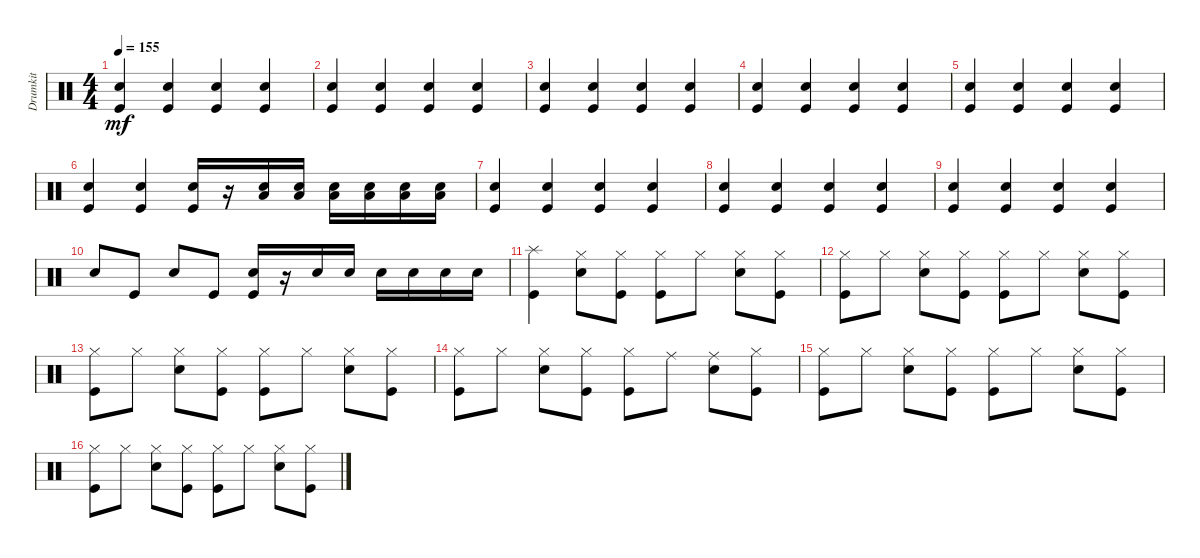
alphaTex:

\track ("Drumkit" "Drumkit") {instrument percussion}
\staff {score}
\articulation defaults
\ts (4 4)
\tempo 155
\clef neutral
\ks c
("Kick (hit)" "Snare (hit) 2").4{dy mf} ("Kick (hit)" "Snare (hit) 2").4 ("Kick (hit)" "Snare (hit) 2").4 ("Kick (hit)" "Snare (hit) 2").4 |
("Kick (hit)" "Snare (hit) 2").4 ("Kick (hit)" "Snare (hit) 2").4 ("Kick (hit)" "Snare (hit) 2").4 ("Kick (hit)" "Snare (hit) 2").4 |
("Kick (hit)" "Snare (hit) 2").4 ("Kick (hit)" "Snare (hit) 2").4 ("Kick (hit)" "Snare (hit) 2").4 ("Kick (hit)" "Snare (hit) 2").4 |
("Kick (hit)" "Snare (hit) 2").4 ("Kick (hit)" "Snare (hit) 2").4 ("Kick (hit)" "Snare (hit) 2").4 ("Kick (hit)" "Snare (hit) 2").4 |
("Kick (hit)" "Snare (hit) 2").4 ("Kick (hit)" "Snare (hit) 2").4 ("Kick (hit)" "Snare (hit) 2").4 ("Kick (hit)" "Snare (hit) 2").4 |
("Kick (hit)" "Snare (hit) 2").4 ("Snare (hit) 2" "Kick (hit)").4 ("Snare (hit) 2" "Kick (hit)").16 r.16 ("Low Floor Tom (hit)" "Snare (hit) 2").16 ("Low Floor Tom (hit)" "Snare (hit) 2").16 ("Low Floor Tom (hit)" "Snare (hit) 2").16 ("Low Floor Tom (hit)" "Snare (hit) 2").16 ("Low Floor Tom (hit)" "Snare (hit) 2").16 ("Low Floor Tom (hit)" "Snare (hit) 2").16 |
("Kick (hit)" "Snare (hit) 2").4 ("Kick (hit)" "Snare (hit) 2").4 ("Kick (hit)" "Snare (hit) 2").4 ("Kick (hit)" "Snare (hit) 2").4 |
("Kick (hit)" "Snare (hit) 2").4 ("Kick (hit)" "Snare (hit) 2").4 ("Kick (hit)" "Snare (hit) 2").4 ("Kick (hit)" "Snare (hit) 2").4 |
("Kick (hit)" "Snare (hit) 2").4 ("Kick (hit)" "Snare (hit) 2").4 ("Kick (hit)" "Snare (hit) 2").4 ("Kick (hit)" "Snare (hit) 2").4 |
"Snare (hit) 2".8 "Kick (hit)".8 "Snare (hit) 2".8 "Kick (hit)".8 ("Snare (hit) 2" "Kick (hit)").16 r.16 "Snare (hit) 2".16 "Snare (hit) 2".16 "Snare (hit) 2".16 "Snare (hit) 2".16 "Snare (hit) 2".16 "Snare (hit) 2".16 |
("Splash (hit)" "Kick (hit)").4 ("Hi-Hat (closed)" "Snare (hit) 2").8 ("Hi-Hat (closed)" "Kick (hit)").8 ("Hi-Hat (closed)" "Kick (hit)").8 "Hi-Hat (closed)".8 ("Hi-Hat (closed)" "Snare (hit) 2").8 ("Hi-Hat (closed)" "Kick (hit)").8 |
("Hi-Hat (closed)" "Kick (hit)").8 "Hi-Hat (closed)".8 ("Hi-Hat (closed)" "Snare (hit) 2").8 ("Hi-Hat (closed)" "Kick (hit)").8 ("Hi-Hat (closed)" "Kick (hit)").8 "Hi-Hat (closed)".8 ("Hi-Hat (closed)" "Snare (hit) 2").8 ("Hi-Hat (closed)" "Kick (hit)").8 |
("Hi-Hat (closed)" "Kick (hit)").8 "Hi-Hat (closed)".8 ("Hi-Hat (closed)" "Snare (hit) 2").8 ("Hi-Hat (closed)" "Kick (hit)").8 ("Hi-Hat (closed)" "Kick (hit)").8 "Hi-Hat (closed)".8 ("Hi-Hat (closed)" "Snare (hit) 2").8 ("Hi-Hat (closed)" "Kick (hit)").8 |
("Hi-Hat (closed)" "Kick (hit)").8 "Hi-Hat (closed)".8 ("Hi-Hat (closed)" "Snare (hit) 2").8 ("Hi-Hat (closed)" "Kick (hit)").8 ("Hi-Hat (closed)" "Kick (hit)").8 "Ride (middle)".8 ("Snare (hit) 2" "Ride (middle)").8 ("Hi-Hat (closed)" "Kick (hit)").8 |
("Hi-Hat (closed)" "Kick (hit)").8 "Hi-Hat (closed)".8 ("Hi-Hat (closed)" "Snare (hit) 2").8 ("Hi-Hat (closed)" "Kick (hit)").8 ("Hi-Hat (closed)" "Kick (hit)").8 "Hi-Hat (closed)".8 ("Hi-Hat (closed)" "Snare (hit) 2").8 ("Hi-Hat (closed)" "Kick (hit)").8 |
("Hi-Hat (closed)" "Kick (hit)").8 "Hi-Hat (closed)".8 ("Hi-Hat (closed)" "Snare (hit) 2").8 ("Hi-Hat (closed)" "Kick (hit)").8 ("Hi-Hat (closed)" "Kick (hit)").8 "Hi-Hat (closed)".8 ("Hi-Hat (closed)" "Snare (hit) 2").8 ("Hi-Hat (closed)" "Kick (hit)").8
